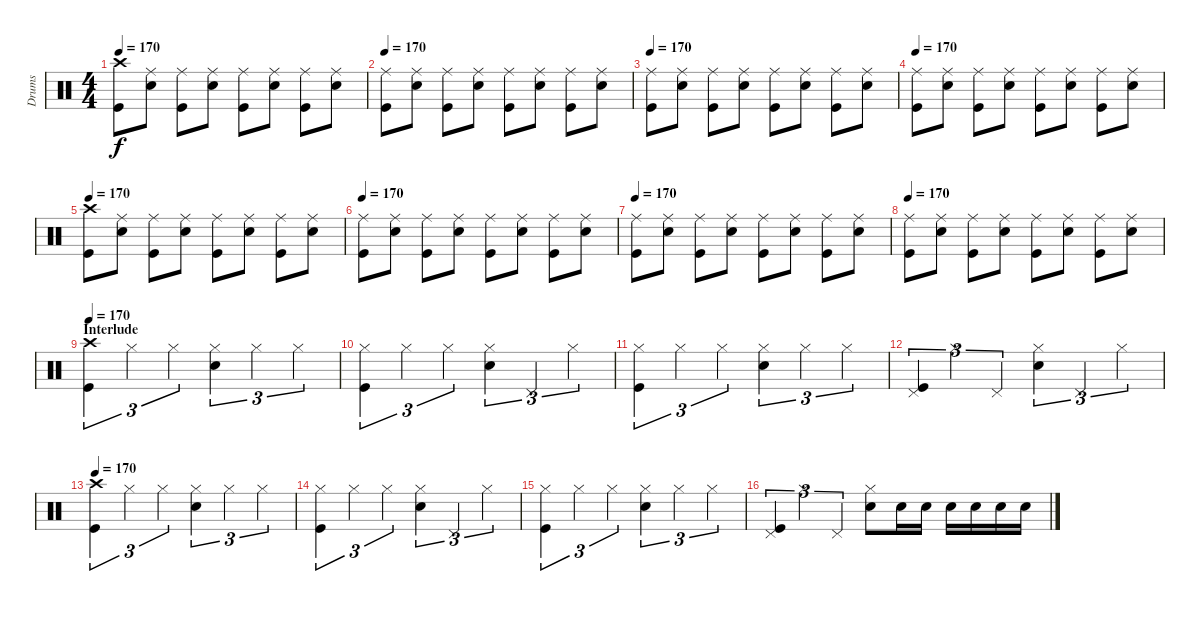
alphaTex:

\track ("Drums" "Drums") {instrument percussion}
\staff {score}
\articulation defaults
\ts (4 4)
\tempo 170
\clef neutral
\ks c
("Crash high (hit)" "Kick (hit)").8{dy f} ("Ride (middle)" "Snare (hit) 2").8 ("Ride (middle)" "Kick (hit)").8 ("Ride (middle)" "Snare (hit) 2").8 ("Ride (middle)" "Kick (hit)").8 ("Ride (middle)" "Snare (hit) 2").8 ("Ride (middle)" "Kick (hit)").8 ("Ride (middle)" "Snare (hit) 2").8 |
\tempo 170
("Ride (middle)" "Kick (hit)").8 ("Ride (middle)" "Snare (hit) 2").8 ("Ride (middle)" "Kick (hit)").8 ("Ride (middle)" "Snare (hit) 2").8 ("Ride (middle)" "Kick (hit)").8 ("Ride (middle)" "Snare (hit) 2").8 ("Ride (middle)" "Kick (hit)").8 ("Ride (middle)" "Snare (hit) 2").8 |
\tempo 170
("Ride (middle)" "Kick (hit)").8 ("Ride (middle)" "Snare (hit) 2").8 ("Ride (middle)" "Kick (hit)").8 ("Ride (middle)" "Snare (hit) 2").8 ("Ride (middle)" "Kick (hit)").8 ("Ride (middle)" "Snare (hit) 2").8 ("Ride (middle)" "Kick (hit)").8 ("Ride (middle)" "Snare (hit) 2").8 |
\tempo 170
("Ride (middle)" "Kick (hit)").8 ("Ride (middle)" "Snare (hit) 2").8 ("Ride (middle)" "Kick (hit)").8 ("Ride (middle)" "Snare (hit) 2").8 ("Ride (middle)" "Kick (hit)").8 ("Ride (middle)" "Snare (hit) 2").8 ("Ride (middle)" "Kick (hit)").8 ("Ride (middle)" "Snare (hit) 2").8 |
\tempo 170
("Crash high (hit)" "Kick (hit)").8 ("Ride (middle)" "Snare (hit) 2").8 ("Ride (middle)" "Kick (hit)").8 ("Ride (middle)" "Snare (hit) 2").8 ("Ride (middle)" "Kick (hit)").8 ("Ride (middle)" "Snare (hit) 2").8 ("Ride (middle)" "Kick (hit)").8 ("Ride (middle)" "Snare (hit) 2").8 |
\tempo 170
("Ride (middle)" "Kick (hit)").8 ("Ride (middle)" "Snare (hit) 2").8 ("Ride (middle)" "Kick (hit)").8 ("Ride (middle)" "Snare (hit) 2").8 ("Ride (middle)" "Kick (hit)").8 ("Ride (middle)" "Snare (hit) 2").8 ("Ride (middle)" "Kick (hit)").8 ("Ride (middle)" "Snare (hit) 2").8 |
\tempo 170
("Ride (middle)" "Kick (hit)").8 ("Ride (middle)" "Snare (hit) 2").8 ("Ride (middle)" "Kick (hit)").8 ("Ride (middle)" "Snare (hit) 2").8 ("Ride (middle)" "Kick (hit)").8 ("Ride (middle)" "Snare (hit) 2").8 ("Ride (middle)" "Kick (hit)").8 ("Ride (middle)" "Snare (hit) 2").8 |
\tempo 170
("Ride (middle)" "Kick (hit)").8 ("Ride (middle)" "Snare (hit) 2").8 ("Ride (middle)" "Kick (hit)").8 ("Ride (middle)" "Snare (hit) 2").8 ("Ride (middle)" "Kick (hit)").8 ("Ride (middle)" "Snare (hit) 2").8 ("Ride (middle)" "Kick (hit)").8 ("Ride (middle)" "Snare (hit) 2").8 |
\section ("" "Interlude")
\tempo 170
("Crash high (hit)" "Kick (hit)").4{tu (3 2)} "Hi-Hat (closed)".4{tu (3 2)} "Hi-Hat (closed)".4{tu (3 2)} ("Hi-Hat (closed)" "Snare (hit) 2").4{tu (3 2)} "Hi-Hat (closed)".4{tu (3 2)} "Hi-Hat (closed)".4{tu (3 2)} |
("Hi-Hat (closed)" "Kick (hit)").4{tu (3 2)} "Hi-Hat (closed)".4{tu (3 2)} "Hi-Hat (closed)".4{tu (3 2)} ("Hi-Hat (closed)" "Snare (hit) 2").4{tu (3 2)} "Pedal Hi-Hat (hit)".4{tu (3 2)} "Hi-Hat (closed)".4{tu (3 2)} |
("Hi-Hat (closed)" "Kick (hit)").4{tu (3 2)} "Hi-Hat (closed)".4{tu (3 2)} "Hi-Hat (closed)".4{tu (3 2)} ("Hi-Hat (closed)" "Snare (hit) 2").4{tu (3 2)} "Hi-Hat (closed)".4{tu (3 2)} "Hi-Hat (closed)".4{tu (3 2)} |
("Pedal Hi-Hat (hit)" "Kick (hit)").4{tu (3 2)} "Hi-Hat (closed)".4{tu (3 2)} "Pedal Hi-Hat (hit)".4{tu (3 2)} ("Hi-Hat (closed)" "Snare (hit) 2").4{tu (3 2)} "Pedal Hi-Hat (hit)".4{tu (3 2)} "Hi-Hat (closed)".4{tu (3 2)} |
\tempo 170
("Crash high (hit)" "Kick (hit)").4{tu (3 2)} "Hi-Hat (closed)".4{tu (3 2)} "Hi-Hat (closed)".4{tu (3 2)} ("Hi-Hat (closed)" "Snare (hit) 2").4{tu (3 2)} "Hi-Hat (closed)".4{tu (3 2)} "Hi-Hat (closed)".4{tu (3 2)} |
("Hi-Hat (closed)" "Kick (hit)").4{tu (3 2)} "Hi-Hat (closed)".4{tu (3 2)} "Hi-Hat (closed)".4{tu (3 2)} ("Hi-Hat (closed)" "Snare (hit) 2").4{tu (3 2)} "Pedal Hi-Hat (hit)".4{tu (3 2)} "Hi-Hat (closed)".4{tu (3 2)} |
("Hi-Hat (closed)" "Kick (hit)").4{tu (3 2)} "Hi-Hat (closed)".4{tu (3 2)} "Hi-Hat (closed)".4{tu (3 2)} ("Hi-Hat (closed)" "Snare (hit) 2").4{tu (3 2)} "Hi-Hat (closed)".4{tu (3 2)} "Hi-Hat (closed)".4{tu (3 2)} |
("Pedal Hi-Hat (hit)" "Kick (hit)").4{tu (3 2)} "Hi-Hat (closed)".4{tu (3 2)} "Pedal Hi-Hat (hit)".4{tu (3 2)} ("Hi-Hat (closed)" "Snare (hit) 2").8 "Snare (hit) 2".16 "Snare (hit) 2".16 "Snare (hit) 2".16 "Snare (hit) 2".16 "Snare (hit) 2".16 "Snare (hit) 2".16
